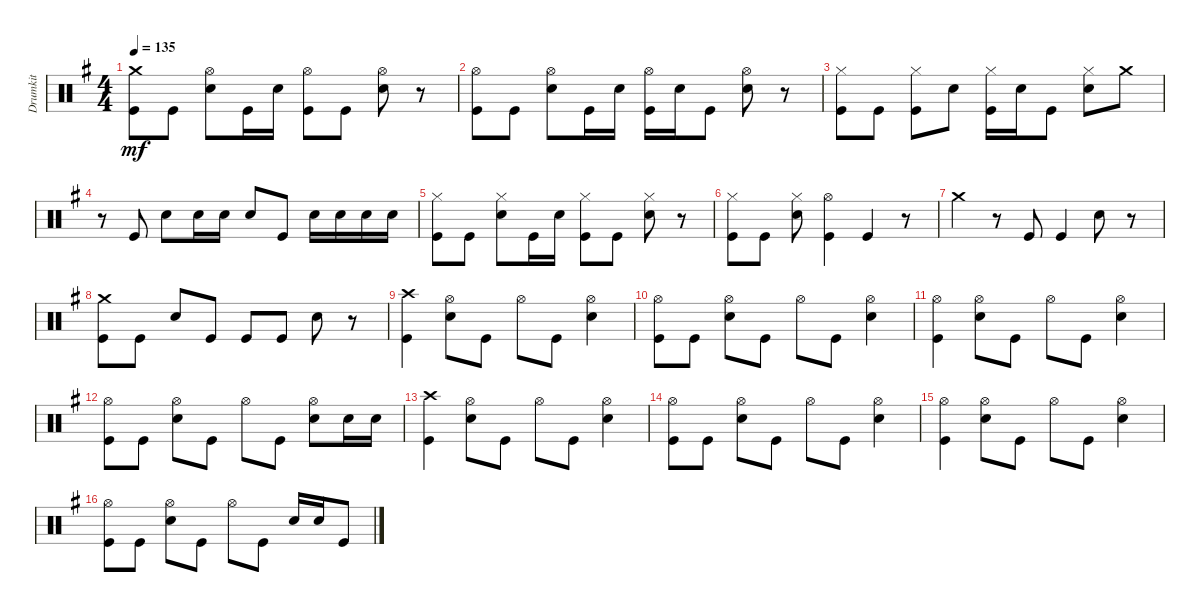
\track ("Drumkit" "Drumkit") {instrument percussion}
\staff {score}
\articulation defaults
\ts (4 4)
\tempo 135
\clef neutral
\ks g
("Crash medium (hit)" "Kick (hit)").8{dy mf} "Kick (hit)".8 ("Hi-Hat (open)" "Snare (hit) 2").8 "Kick (hit)".16 "Snare (hit) 2".16 ("Hi-Hat (open)" "Kick (hit)").8 "Kick (hit)".8 ("Hi-Hat (open)" "Snare (hit) 2").8 r.8 |
("Hi-Hat (open)" "Kick (hit)").8 "Kick (hit)".8 ("Hi-Hat (open)" "Snare (hit) 2").8 "Kick (hit)".16 "Snare (hit) 2".16 ("Hi-Hat (open)" "Kick (hit)").16 "Snare (hit) 2".16 "Kick (hit)".8 ("Hi-Hat (open)" "Snare (hit) 2").8 r.8 |
("Kick (hit)" "Hi-Hat (closed)").8 "Kick (hit)".8 ("Hi-Hat (closed)" "Kick (hit)").8 "Snare (hit) 2".8 ("Kick (hit)" "Hi-Hat (closed)").16 "Snare (hit) 2".16 "Kick (hit)".8 ("Snare (hit) 2" "Hi-Hat (closed)").8 "Crash medium (hit)".8 |
r.8 "Kick (hit)".8 "Snare (hit) 2".8 "Snare (hit) 2".16 "Snare (hit) 2".16 "Snare (hit) 2".8 "Kick (hit)".8 "Snare (hit) 2".16 "Snare (hit) 2".16 "Snare (hit) 2".16 "Snare (hit) 2".16 |
("Kick (hit)" "Hi-Hat (closed)").8 "Kick (hit)".8 ("Snare (hit) 2" "Hi-Hat (closed)").8 "Kick (hit)".16 "Snare (hit) 2".16 ("Kick (hit)" "Hi-Hat (closed)").8 "Kick (hit)".8 ("Snare (hit) 2" "Hi-Hat (closed)").8 r.8 |
("Kick (hit)" "Hi-Hat (closed)").8 "Kick (hit)".8 ("Snare (hit) 2" "Hi-Hat (closed)").8 ("Hi-Hat (open)" "Kick (hit)").4 "Kick (hit)".4 r.8 |
"Crash medium (hit)".4 r.8 "Kick (hit)".8 "Kick (hit)".4 "Snare (hit) 2".8 r.8 |
("Kick (hit)" "Crash medium (hit)").8 "Kick (hit)".8 "Snare (hit) 2".8 "Kick (hit)".8 "Kick (hit)".8 "Kick (hit)".8 "Snare (hit) 2".8 r.8 |
("Kick (hit)" "Crash high (hit)").4 ("Hi-Hat (open)" "Snare (hit) 2").8 "Kick (hit)".8 "Hi-Hat (open)".8 "Kick (hit)".8 ("Hi-Hat (open)" "Snare (hit) 2").4 |
("Hi-Hat (open)" "Kick (hit)").8 "Kick (hit)".8 ("Hi-Hat (open)" "Snare (hit) 2").8 "Kick (hit)".8 "Hi-Hat (open)".8 "Kick (hit)".8 ("Hi-Hat (open)" "Snare (hit) 2").4 |
("Kick (hit)" "Hi-Hat (open)").4 ("Hi-Hat (open)" "Snare (hit) 2").8 "Kick (hit)".8 "Hi-Hat (open)".8 "Kick (hit)".8 ("Hi-Hat (open)" "Snare (hit) 2").4 |
("Hi-Hat (open)" "Kick (hit)").8 "Kick (hit)".8 ("Hi-Hat (open)" "Snare (hit) 2").8 "Kick (hit)".8 "Hi-Hat (open)".8 "Kick (hit)".8 ("Hi-Hat (open)" "Snare (hit) 2").8 "Snare (hit) 2".16 "Snare (hit) 2".16 |
("Kick (hit)" "Crash high (hit)").4 ("Hi-Hat (open)" "Snare (hit) 2").8 "Kick (hit)".8 "Hi-Hat (open)".8 "Kick (hit)".8 ("Hi-Hat (open)" "Snare (hit) 2").4 |
("Hi-Hat (open)" "Kick (hit)").8 "Kick (hit)".8 ("Hi-Hat (open)" "Snare (hit) 2").8 "Kick (hit)".8 "Hi-Hat (open)".8 "Kick (hit)".8 ("Hi-Hat (open)" "Snare (hit) 2").4 |
("Kick (hit)" "Hi-Hat (open)").4 ("Hi-Hat (open)" "Snare (hit) 2").8 "Kick (hit)".8 "Hi-Hat (open)".8 "Kick (hit)".8 ("Hi-Hat (open)" "Snare (hit) 2").4 |
("Hi-Hat (open)" "Kick (hit)").8 "Kick (hit)".8 ("Hi-Hat (open)" "Snare (hit) 2").8 "Kick (hit)".8 "Hi-Hat (open)".8 "Kick (hit)".8 "Snare (hit) 2".16 "Snare (hit) 2".16 "Kick (hit)".8
